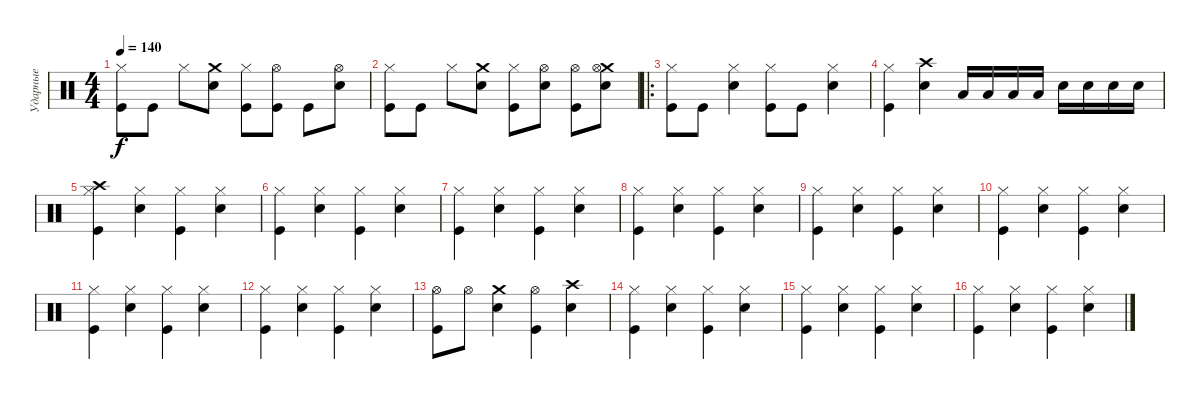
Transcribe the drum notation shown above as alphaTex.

\track ("Ударные" "Ударные") {instrument percussion}
\staff {score}
\articulation defaults
\ts (4 4)
\tempo 140
\clef neutral
\ks c
("Hi-Hat (closed)" "Kick (hit)").8{dy f} "Kick (hit)".8 "Hi-Hat (closed)".8 ("Crash medium (hit)" "Electric Snare (hit)").8 ("Hi-Hat (closed)" "Kick (hit)").8 ("Kick (hit)" "Hi-Hat (open)").8 "Kick (hit)".8 ("Electric Snare (hit)" "Hi-Hat (open)").8 |
("Hi-Hat (closed)" "Kick (hit)").8 "Kick (hit)".8 "Hi-Hat (closed)".8 ("Crash medium (hit)" "Electric Snare (hit)").8 ("Hi-Hat (closed)" "Kick (hit)").8 ("Electric Snare (hit)" "Hi-Hat (open)").8 ("Kick (hit)" "Hi-Hat (open)").8 ("Crash medium (hit)" "Electric Snare (hit)" "Hi-Hat (open)").8 |
\ro
("Hi-Hat (closed)" "Kick (hit)").8 "Kick (hit)".8 ("Hi-Hat (closed)" "Electric Snare (hit)").4 ("Kick (hit)" "Hi-Hat (closed)").8 "Kick (hit)".8 ("Hi-Hat (closed)" "Electric Snare (hit)").4 |
("Hi-Hat (closed)" "Kick (hit)").4 ("Crash high (hit)" "Electric Snare (hit)").4 "Low Tom (hit)".16 "Low Tom (hit)".16 "Low Tom (hit)".16 "Low Tom (hit)".16 "Electric Snare (hit)".16 "Electric Snare (hit)".16 "Electric Snare (hit)".16 "Electric Snare (hit)".16 |
("Crash high (hit)" "Hi-Hat (closed)" "Kick (hit)").4 ("Hi-Hat (closed)" "Electric Snare (hit)").4 ("Hi-Hat (closed)" "Kick (hit)").4 ("Hi-Hat (closed)" "Electric Snare (hit)").4 |
("Hi-Hat (closed)" "Kick (hit)").4 ("Hi-Hat (closed)" "Electric Snare (hit)").4 ("Hi-Hat (closed)" "Kick (hit)").4 ("Hi-Hat (closed)" "Electric Snare (hit)").4 |
("Hi-Hat (closed)" "Kick (hit)").4 ("Hi-Hat (closed)" "Electric Snare (hit)").4 ("Hi-Hat (closed)" "Kick (hit)").4 ("Hi-Hat (closed)" "Electric Snare (hit)").4 |
("Hi-Hat (closed)" "Kick (hit)").4 ("Hi-Hat (closed)" "Electric Snare (hit)").4 ("Hi-Hat (closed)" "Kick (hit)").4 ("Hi-Hat (closed)" "Electric Snare (hit)").4 |
("Hi-Hat (closed)" "Kick (hit)").4 ("Hi-Hat (closed)" "Electric Snare (hit)").4 ("Hi-Hat (closed)" "Kick (hit)").4 ("Hi-Hat (closed)" "Electric Snare (hit)").4 |
("Hi-Hat (closed)" "Kick (hit)").4 ("Hi-Hat (closed)" "Electric Snare (hit)").4 ("Hi-Hat (closed)" "Kick (hit)").4 ("Hi-Hat (closed)" "Electric Snare (hit)").4 |
("Hi-Hat (closed)" "Kick (hit)").4 ("Hi-Hat (closed)" "Electric Snare (hit)").4 ("Hi-Hat (closed)" "Kick (hit)").4 ("Hi-Hat (closed)" "Electric Snare (hit)").4 |
("Hi-Hat (closed)" "Kick (hit)").4 ("Hi-Hat (closed)" "Electric Snare (hit)").4 ("Hi-Hat (closed)" "Kick (hit)").4 ("Hi-Hat (closed)" "Electric Snare (hit)").4 |
("Hi-Hat (open)" "Kick (hit)").8 "Hi-Hat (open)".8 ("Crash medium (hit)" "Electric Snare (hit)").4 ("Hi-Hat (open)" "Kick (hit)").4 ("Crash high (hit)" "Electric Snare (hit)").4 |
("Hi-Hat (closed)" "Kick (hit)").4 ("Hi-Hat (closed)" "Electric Snare (hit)").4 ("Hi-Hat (closed)" "Kick (hit)").4 ("Hi-Hat (closed)" "Electric Snare (hit)").4 |
("Hi-Hat (closed)" "Kick (hit)").4 ("Hi-Hat (closed)" "Electric Snare (hit)").4 ("Hi-Hat (closed)" "Kick (hit)").4 ("Hi-Hat (closed)" "Electric Snare (hit)").4 |
("Hi-Hat (closed)" "Kick (hit)").4 ("Hi-Hat (closed)" "Electric Snare (hit)").4 ("Hi-Hat (closed)" "Kick (hit)").4 ("Hi-Hat (closed)" "Electric Snare (hit)").4
